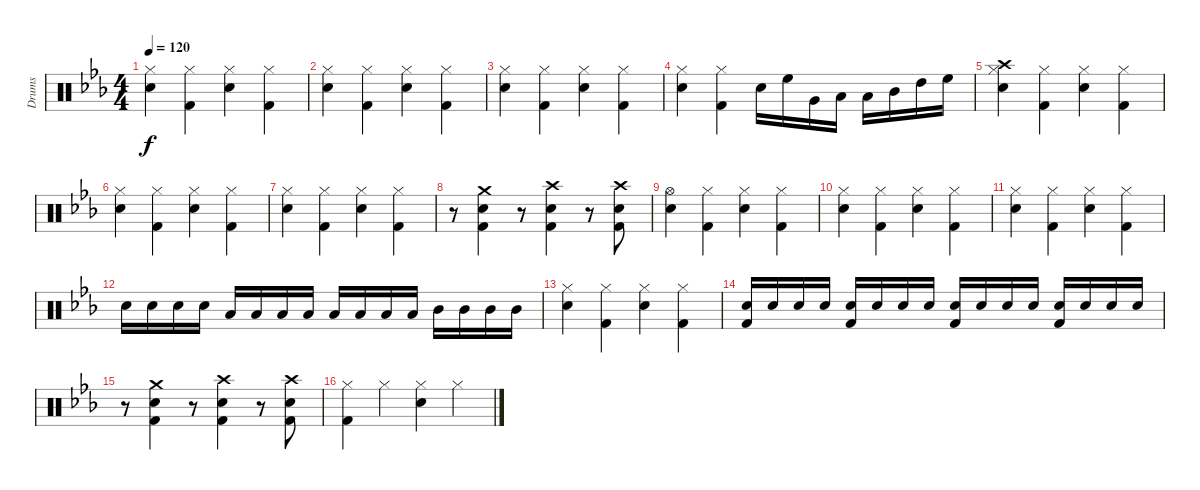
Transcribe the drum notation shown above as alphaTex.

\track ("Drums" "Drums") {instrument percussion}
\staff {score}
\articulation defaults
\ts (4 4)
\tempo 120
\clef neutral
\ks cminor
("Hi-Hat (closed)" "Snare (hit) 2").4{dy f} ("Hi-Hat (closed)" "Kick (hit) 2").4 ("Hi-Hat (closed)" "Snare (hit) 2").4 ("Hi-Hat (closed)" "Kick (hit) 2").4 |
("Hi-Hat (closed)" "Snare (hit) 2").4 ("Hi-Hat (closed)" "Kick (hit) 2").4 ("Hi-Hat (closed)" "Snare (hit) 2").4 ("Hi-Hat (closed)" "Kick (hit) 2").4 |
("Hi-Hat (closed)" "Snare (hit) 2").4 ("Hi-Hat (closed)" "Kick (hit) 2").4 ("Hi-Hat (closed)" "Snare (hit) 2").4 ("Hi-Hat (closed)" "Kick (hit) 2").4 |
("Hi-Hat (closed)" "Snare (hit) 2").4 ("Hi-Hat (closed)" "Kick (hit) 2").4 "Snare (hit) 2".16 "High Floor Tom (hit)".16 "Very Low Tom (hit)".16 "Low Floor Tom (hit)".16 "Low Tom (hit)".16 "Mid Tom (hit)".16 "High Tom (hit)".16 "High Floor Tom (hit)".16 |
("Hi-Hat (closed)" "Snare (hit) 2" "Crash high (hit)").4 ("Hi-Hat (closed)" "Kick (hit) 2").4 ("Hi-Hat (closed)" "Snare (hit) 2").4 ("Hi-Hat (closed)" "Kick (hit) 2").4 |
("Hi-Hat (closed)" "Snare (hit) 2").4 ("Hi-Hat (closed)" "Kick (hit) 2").4 ("Hi-Hat (closed)" "Snare (hit) 2").4 ("Hi-Hat (closed)" "Kick (hit) 2").4 |
("Hi-Hat (closed)" "Snare (hit) 2").4 ("Hi-Hat (closed)" "Kick (hit) 2").4 ("Hi-Hat (closed)" "Snare (hit) 2").4 ("Hi-Hat (closed)" "Kick (hit) 2").4 |
r.8 ("Crash medium (hit)" "Snare (hit) 2" "Kick (hit) 2").4 r.8 ("Crash high (hit)" "Snare (hit) 2" "Kick (hit) 2").4 r.8 ("Crash high (hit)" "Snare (hit) 2" "Kick (hit) 2").8 |
("Hi-Hat (open)" "Snare (hit) 2").4 ("Hi-Hat (closed)" "Kick (hit) 2").4 ("Hi-Hat (closed)" "Snare (hit) 2").4 ("Hi-Hat (closed)" "Kick (hit) 2").4 |
("Hi-Hat (closed)" "Snare (hit) 2").4 ("Hi-Hat (closed)" "Kick (hit) 2").4 ("Hi-Hat (closed)" "Snare (hit) 2").4 ("Hi-Hat (closed)" "Kick (hit) 2").4 |
("Hi-Hat (closed)" "Snare (hit) 2").4 ("Hi-Hat (closed)" "Kick (hit) 2").4 ("Hi-Hat (closed)" "Snare (hit) 2").4 ("Hi-Hat (closed)" "Kick (hit) 2").4 |
"Snare (hit) 2".16 "Snare (hit) 2".16 "Snare (hit) 2".16 "Snare (hit) 2".16 "Low Floor Tom (hit)".16 "Low Floor Tom (hit)".16 "Low Floor Tom (hit)".16 "Low Floor Tom (hit)".16 "Low Tom (hit)".16 "Low Tom (hit)".16 "Low Tom (hit)".16 "Low Tom (hit)".16 "Mid Tom (hit)".16 "Mid Tom (hit)".16 "Mid Tom (hit)".16 "Mid Tom (hit)".16 |
("Hi-Hat (closed)" "Snare (hit) 2").4 ("Hi-Hat (closed)" "Kick (hit) 2").4 ("Hi-Hat (closed)" "Snare (hit) 2").4 ("Hi-Hat (closed)" "Kick (hit) 2").4 |
("Snare (hit) 2" "Kick (hit) 2").16 "Snare (hit) 2".16 "Snare (hit) 2".16 "Snare (hit) 2".16 ("Snare (hit) 2" "Kick (hit) 2").16 "Snare (hit) 2".16 "Snare (hit) 2".16 "Snare (hit) 2".16 ("Snare (hit) 2" "Kick (hit) 2").16 "Snare (hit) 2".16 "Snare (hit) 2".16 "Snare (hit) 2".16 ("Snare (hit) 2" "Kick (hit) 2").16 "Snare (hit) 2".16 "Snare (hit) 2".16 "Snare (hit) 2".16 |
r.8 ("Crash medium (hit)" "Snare (hit) 2" "Kick (hit) 2").4 r.8 ("Crash high (hit)" "Snare (hit) 2" "Kick (hit) 2").4 r.8 ("Crash high (hit)" "Snare (hit) 2" "Kick (hit) 2").8 |
("Hi-Hat (closed)" "Kick (hit) 2").4 "Hi-Hat (closed)".4 ("Hi-Hat (closed)" "Snare (hit) 2").4 "Hi-Hat (closed)".4
